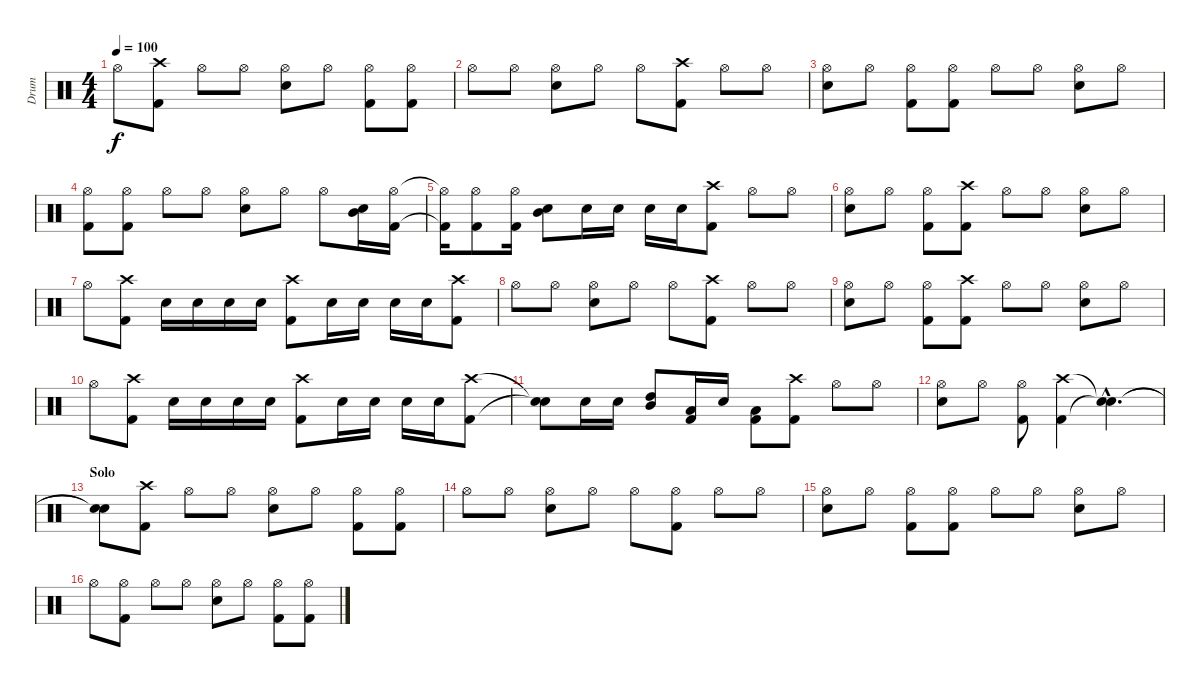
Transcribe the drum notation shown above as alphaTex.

\track ("Drum" "Drum") {instrument percussion}
\staff {score}
\articulation defaults
\ts (4 4)
\tempo 100
\clef neutral
\ks c "Hi-Hat (open)".8{dy f}
("Crash high (hit)" "Kick (hit) 2").8 "Hi-Hat (open)".8 "Hi-Hat (open)".8 ("Hi-Hat (open)" "Snare (hit) 2").8 "Hi-Hat (open)".8 ("Hi-Hat (open)" "Kick (hit) 2").8 ("Hi-Hat (open)" "Kick (hit) 2").8 |
"Hi-Hat (open)".8 "Hi-Hat (open)".8 ("Hi-Hat (open)" "Snare (hit) 2").8 "Hi-Hat (open)".8 "Hi-Hat (open)".8 ("Crash high (hit)" "Kick (hit) 2").8 "Hi-Hat (open)".8 "Hi-Hat (open)".8 |
("Hi-Hat (open)" "Snare (hit) 2").8 "Hi-Hat (open)".8 ("Hi-Hat (open)" "Kick (hit) 2").8 ("Hi-Hat (open)" "Kick (hit) 2").8 "Hi-Hat (open)".8 "Hi-Hat (open)".8 ("Hi-Hat (open)" "Snare (hit) 2").8 "Hi-Hat (open)".8 |
("Hi-Hat (open)" "Kick (hit) 2").8 ("Hi-Hat (open)" "Kick (hit) 2").8 "Hi-Hat (open)".8 "Hi-Hat (open)".8 ("Hi-Hat (open)" "Snare (hit) 2").8 "Hi-Hat (open)".8 "Hi-Hat (open)".8 ("Mid Tom (hit)" "Snare (hit) 2").16 ("Hi-Hat (open)" "Kick (hit) 2").16 |
("Hi-Hat (open)"{t} "Kick (hit) 2"{t}).16 ("Hi-Hat (open)" "Kick (hit) 2").8 ("Hi-Hat (open)" "Kick (hit) 2").16 ("Mid Tom (hit)" "Snare (hit) 2").8 "Snare (hit) 2".16 "Snare (hit) 2".16 "Snare (hit) 2".16 "Snare (hit) 2".16 ("Crash high (hit)" "Kick (hit) 2").8 "Hi-Hat (open)".8 "Hi-Hat (open)".8 |
("Hi-Hat (open)" "Snare (hit) 2").8 "Hi-Hat (open)".8 ("Hi-Hat (open)" "Kick (hit) 2").8 ("Crash high (hit)" "Kick (hit) 2").8 "Hi-Hat (open)".8 "Hi-Hat (open)".8 ("Hi-Hat (open)" "Snare (hit) 2").8 "Hi-Hat (open)".8 |
"Hi-Hat (open)".8 ("Crash high (hit)" "Kick (hit) 2").8 "Snare (hit) 2".16 "Snare (hit) 2".16 "Snare (hit) 2".16 "Snare (hit) 2".16 ("Crash high (hit)" "Kick (hit) 2").8 "Snare (hit) 2".16 "Snare (hit) 2".16 "Snare (hit) 2".16 "Snare (hit) 2".16 ("Crash high (hit)" "Kick (hit) 2").8 |
"Hi-Hat (open)".8 "Hi-Hat (open)".8 ("Hi-Hat (open)" "Snare (hit) 2").8 "Hi-Hat (open)".8 "Hi-Hat (open)".8 ("Crash high (hit)" "Kick (hit) 2").8 "Hi-Hat (open)".8 "Hi-Hat (open)".8 |
("Hi-Hat (open)" "Snare (hit) 2").8 "Hi-Hat (open)".8 ("Hi-Hat (open)" "Kick (hit) 2").8 ("Crash high (hit)" "Kick (hit) 2").8 "Hi-Hat (open)".8 "Hi-Hat (open)".8 ("Hi-Hat (open)" "Snare (hit) 2").8 "Hi-Hat (open)".8 |
"Hi-Hat (open)".8 ("Crash high (hit)" "Kick (hit) 2").8 "Snare (hit) 2".16 "Snare (hit) 2".16 "Snare (hit) 2".16 "Snare (hit) 2".16 ("Crash high (hit)" "Kick (hit) 2").8 "Snare (hit) 2".16 "Snare (hit) 2".16 "Snare (hit) 2".16 "Snare (hit) 2".16 ("Crash high (hit)" "Kick (hit) 2").8 |
("Snare (hit)"{t} "Snare (hit)"{t}).8 "Snare (hit) 2".16 "Snare (hit) 2".16 ("Mid Tom (hit)" "High Tom (hit)").8 ("Low Floor Tom (hit)" "Kick (hit) 2").16 "Snare (hit) 2".16 ("Low Floor Tom (hit)" "Kick (hit) 2").8 ("Crash high (hit)" "Kick (hit) 2").8 "Hi-Hat (open)".8 "Hi-Hat (open)".8 |
("Hi-Hat (open)" "Snare (hit) 2").8 "Hi-Hat (open)".8 ("Hi-Hat (open)" "Kick (hit) 2").8 ("Crash high (hit)" "Kick (hit) 2").4 ("Snare (hit)"{hac t} "Snare (hit)"{hac t}).4{d} |
\section ("" "Solo")
("Snare (hit)"{t} "Snare (hit)"{t}).8 ("Crash high (hit)" "Kick (hit) 2").8 "Hi-Hat (open)".8 "Hi-Hat (open)".8 ("Hi-Hat (open)" "Snare (hit) 2").8 "Hi-Hat (open)".8 ("Hi-Hat (open)" "Kick (hit) 2").8 ("Hi-Hat (open)" "Kick (hit) 2").8 |
"Hi-Hat (open)".8 "Hi-Hat (open)".8 ("Hi-Hat (open)" "Snare (hit) 2").8 "Hi-Hat (open)".8 "Hi-Hat (open)".8 ("Hi-Hat (open)" "Kick (hit) 2").8 "Hi-Hat (open)".8 "Hi-Hat (open)".8 |
("Hi-Hat (open)" "Snare (hit) 2").8 "Hi-Hat (open)".8 ("Hi-Hat (open)" "Kick (hit) 2").8 ("Hi-Hat (open)" "Kick (hit) 2").8 "Hi-Hat (open)".8 "Hi-Hat (open)".8 ("Hi-Hat (open)" "Snare (hit) 2").8 "Hi-Hat (open)".8 |
"Hi-Hat (open)".8 ("Hi-Hat (open)" "Kick (hit) 2").8 "Hi-Hat (open)".8 "Hi-Hat (open)".8 ("Hi-Hat (open)" "Snare (hit) 2").8 "Hi-Hat (open)".8 ("Hi-Hat (open)" "Kick (hit) 2").8 ("Hi-Hat (open)" "Kick (hit) 2").8
